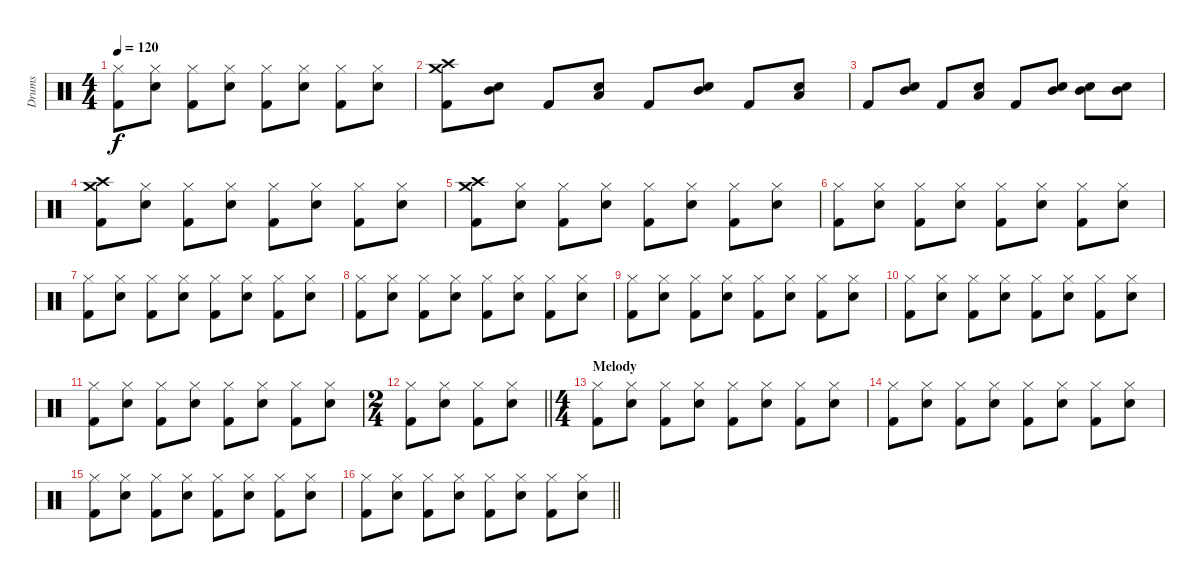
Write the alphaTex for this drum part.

\track ("Drums" "Drums") {instrument percussion}
\staff {score}
\articulation defaults
\ts (4 4)
\tempo 120
\clef neutral
\ks c
("Hi-Hat (closed)" "Kick (hit) 2").8{dy f} ("Hi-Hat (closed)" "Electric Snare (hit)").8 ("Hi-Hat (closed)" "Kick (hit) 2").8 ("Hi-Hat (closed)" "Electric Snare (hit)").8 ("Hi-Hat (closed)" "Kick (hit) 2").8 ("Hi-Hat (closed)" "Electric Snare (hit)").8 ("Hi-Hat (closed)" "Kick (hit) 2").8 ("Hi-Hat (closed)" "Electric Snare (hit)").8 |
("Crash medium (hit)" "Crash high (hit)" "Kick (hit) 2").8 ("Mid Tom (hit)" "Electric Snare (hit)").8 "Kick (hit) 2".8 ("Low Tom (hit)" "Electric Snare (hit)").8 "Kick (hit) 2".8 ("Mid Tom (hit)" "Electric Snare (hit)").8 "Kick (hit) 2".8 ("Low Tom (hit)" "Electric Snare (hit)").8 |
"Kick (hit) 2".8 ("Mid Tom (hit)" "Electric Snare (hit)").8 "Kick (hit) 2".8 ("Low Tom (hit)" "Electric Snare (hit)").8 "Kick (hit) 2".8 ("Mid Tom (hit)" "Electric Snare (hit)").8 ("Mid Tom (hit)" "Electric Snare (hit)").8 ("Mid Tom (hit)" "Electric Snare (hit)").8 |
("Crash high (hit)" "Crash medium (hit)" "Kick (hit) 2").8 ("Hi-Hat (closed)" "Electric Snare (hit)").8 ("Hi-Hat (closed)" "Kick (hit) 2").8 ("Hi-Hat (closed)" "Electric Snare (hit)").8 ("Hi-Hat (closed)" "Kick (hit) 2").8 ("Hi-Hat (closed)" "Electric Snare (hit)").8 ("Hi-Hat (closed)" "Kick (hit) 2").8 ("Hi-Hat (closed)" "Electric Snare (hit)").8 |
("Crash high (hit)" "Crash medium (hit)" "Kick (hit) 2").8 ("Hi-Hat (closed)" "Electric Snare (hit)").8 ("Hi-Hat (closed)" "Kick (hit) 2").8 ("Hi-Hat (closed)" "Electric Snare (hit)").8 ("Hi-Hat (closed)" "Kick (hit) 2").8 ("Hi-Hat (closed)" "Electric Snare (hit)").8 ("Hi-Hat (closed)" "Kick (hit) 2").8 ("Hi-Hat (closed)" "Electric Snare (hit)").8 |
("Hi-Hat (closed)" "Kick (hit) 2").8 ("Hi-Hat (closed)" "Electric Snare (hit)").8 ("Hi-Hat (closed)" "Kick (hit) 2").8 ("Hi-Hat (closed)" "Electric Snare (hit)").8 ("Hi-Hat (closed)" "Kick (hit) 2").8 ("Hi-Hat (closed)" "Electric Snare (hit)").8 ("Hi-Hat (closed)" "Kick (hit) 2").8 ("Hi-Hat (closed)" "Electric Snare (hit)").8 |
("Hi-Hat (closed)" "Kick (hit) 2").8 ("Hi-Hat (closed)" "Electric Snare (hit)").8 ("Hi-Hat (closed)" "Kick (hit) 2").8 ("Hi-Hat (closed)" "Electric Snare (hit)").8 ("Hi-Hat (closed)" "Kick (hit) 2").8 ("Hi-Hat (closed)" "Electric Snare (hit)").8 ("Hi-Hat (closed)" "Kick (hit) 2").8 ("Hi-Hat (closed)" "Electric Snare (hit)").8 |
("Hi-Hat (closed)" "Kick (hit) 2").8 ("Hi-Hat (closed)" "Electric Snare (hit)").8 ("Hi-Hat (closed)" "Kick (hit) 2").8 ("Hi-Hat (closed)" "Electric Snare (hit)").8 ("Hi-Hat (closed)" "Kick (hit) 2").8 ("Hi-Hat (closed)" "Electric Snare (hit)").8 ("Hi-Hat (closed)" "Kick (hit) 2").8 ("Hi-Hat (closed)" "Electric Snare (hit)").8 |
("Hi-Hat (closed)" "Kick (hit) 2").8 ("Hi-Hat (closed)" "Electric Snare (hit)").8 ("Hi-Hat (closed)" "Kick (hit) 2").8 ("Hi-Hat (closed)" "Electric Snare (hit)").8 ("Hi-Hat (closed)" "Kick (hit) 2").8 ("Hi-Hat (closed)" "Electric Snare (hit)").8 ("Hi-Hat (closed)" "Kick (hit) 2").8 ("Hi-Hat (closed)" "Electric Snare (hit)").8 |
("Hi-Hat (closed)" "Kick (hit) 2").8 ("Hi-Hat (closed)" "Electric Snare (hit)").8 ("Hi-Hat (closed)" "Kick (hit) 2").8 ("Hi-Hat (closed)" "Electric Snare (hit)").8 ("Hi-Hat (closed)" "Kick (hit) 2").8 ("Hi-Hat (closed)" "Electric Snare (hit)").8 ("Hi-Hat (closed)" "Kick (hit) 2").8 ("Hi-Hat (closed)" "Electric Snare (hit)").8 |
("Hi-Hat (closed)" "Kick (hit) 2").8 ("Hi-Hat (closed)" "Electric Snare (hit)").8 ("Hi-Hat (closed)" "Kick (hit) 2").8 ("Hi-Hat (closed)" "Electric Snare (hit)").8 ("Hi-Hat (closed)" "Kick (hit) 2").8 ("Hi-Hat (closed)" "Electric Snare (hit)").8 ("Hi-Hat (closed)" "Kick (hit) 2").8 ("Hi-Hat (closed)" "Electric Snare (hit)").8 |
\ts (2 4)
\barLineRight lightlight
("Hi-Hat (closed)" "Kick (hit) 2").8 ("Hi-Hat (closed)" "Electric Snare (hit)").8 ("Hi-Hat (closed)" "Kick (hit) 2").8 ("Hi-Hat (closed)" "Electric Snare (hit)").8 |
\ts (4 4)
\section ("" "Melody")
("Hi-Hat (closed)" "Kick (hit) 2").8 ("Hi-Hat (closed)" "Electric Snare (hit)").8 ("Hi-Hat (closed)" "Kick (hit) 2").8 ("Hi-Hat (closed)" "Electric Snare (hit)").8 ("Hi-Hat (closed)" "Kick (hit) 2").8 ("Hi-Hat (closed)" "Electric Snare (hit)").8 ("Hi-Hat (closed)" "Kick (hit) 2").8 ("Hi-Hat (closed)" "Electric Snare (hit)").8 |
("Hi-Hat (closed)" "Kick (hit) 2").8 ("Hi-Hat (closed)" "Electric Snare (hit)").8 ("Hi-Hat (closed)" "Kick (hit) 2").8 ("Hi-Hat (closed)" "Electric Snare (hit)").8 ("Hi-Hat (closed)" "Kick (hit) 2").8 ("Hi-Hat (closed)" "Electric Snare (hit)").8 ("Hi-Hat (closed)" "Kick (hit) 2").8 ("Hi-Hat (closed)" "Electric Snare (hit)").8 |
("Hi-Hat (closed)" "Kick (hit) 2").8 ("Hi-Hat (closed)" "Electric Snare (hit)").8 ("Hi-Hat (closed)" "Kick (hit) 2").8 ("Hi-Hat (closed)" "Electric Snare (hit)").8 ("Hi-Hat (closed)" "Kick (hit) 2").8 ("Hi-Hat (closed)" "Electric Snare (hit)").8 ("Hi-Hat (closed)" "Kick (hit) 2").8 ("Hi-Hat (closed)" "Electric Snare (hit)").8 |
\barLineRight lightlight
("Hi-Hat (closed)" "Kick (hit) 2").8 ("Hi-Hat (closed)" "Electric Snare (hit)").8 ("Hi-Hat (closed)" "Kick (hit) 2").8 ("Hi-Hat (closed)" "Electric Snare (hit)").8 ("Hi-Hat (closed)" "Kick (hit) 2").8 ("Hi-Hat (closed)" "Electric Snare (hit)").8 ("Hi-Hat (closed)" "Kick (hit) 2").8 ("Hi-Hat (closed)" "Electric Snare (hit)").8
